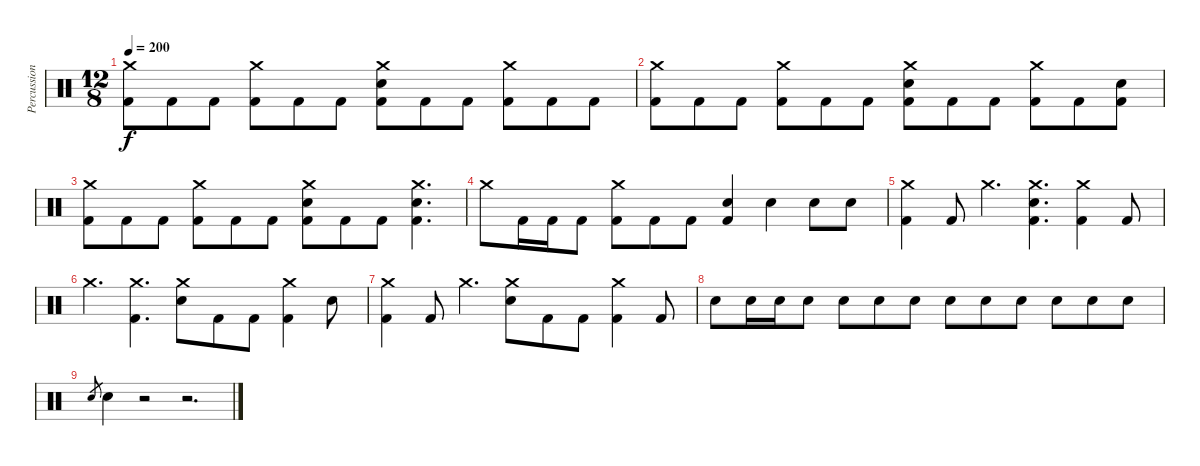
\track ("Percussion" "Percussion") {instrument percussion}
\staff {score}
\articulation defaults
\ts (12 8)
\tempo 200
\clef neutral
\ks c
("Crash medium (hit)" "Kick (hit) 2").8{dy f} "Kick (hit) 2".8 "Kick (hit) 2".8 ("Crash medium (hit)" "Kick (hit) 2").8 "Kick (hit) 2".8 "Kick (hit) 2".8 ("Crash medium (hit)" "Electric Snare (hit)" "Kick (hit) 2").8 "Kick (hit) 2".8 "Kick (hit) 2".8 ("Crash medium (hit)" "Kick (hit) 2").8 "Kick (hit) 2".8 "Kick (hit) 2".8 |
("Crash medium (hit)" "Kick (hit) 2").8 "Kick (hit) 2".8 "Kick (hit) 2".8 ("Crash medium (hit)" "Kick (hit) 2").8 "Kick (hit) 2".8 "Kick (hit) 2".8 ("Crash medium (hit)" "Electric Snare (hit)" "Kick (hit) 2").8 "Kick (hit) 2".8 "Kick (hit) 2".8 ("Crash medium (hit)" "Kick (hit) 2").8 "Kick (hit) 2".8 ("Electric Snare (hit)" "Kick (hit) 2").8 |
("Crash medium (hit)" "Kick (hit) 2").8 "Kick (hit) 2".8 "Kick (hit) 2".8 ("Crash medium (hit)" "Kick (hit) 2").8 "Kick (hit) 2".8 "Kick (hit) 2".8 ("Crash medium (hit)" "Electric Snare (hit)" "Kick (hit) 2").8 "Kick (hit) 2".8 "Kick (hit) 2".8 ("Crash medium (hit)" "Electric Snare (hit)" "Kick (hit) 2").4{d} |
"Crash medium (hit)".8 "Kick (hit) 2".16 "Kick (hit) 2".16 "Kick (hit) 2".8 ("Crash medium (hit)" "Kick (hit) 2").8 "Kick (hit) 2".8 "Kick (hit) 2".8 ("Electric Snare (hit)" "Kick (hit) 2").4 "Electric Snare (hit)".4 "Electric Snare (hit)".8 "Electric Snare (hit)".8 |
("Crash medium (hit)" "Kick (hit) 2").4 "Kick (hit) 2".8 "Crash medium (hit)".4{d} ("Crash medium (hit)" "Electric Snare (hit)" "Kick (hit) 2").4{d} ("Crash medium (hit)" "Kick (hit) 2").4 "Kick (hit) 2".8 |
"Crash medium (hit)".4{d} ("Crash medium (hit)" "Kick (hit) 2").4{d} ("Crash medium (hit)" "Electric Snare (hit)").8 "Kick (hit) 2".8 "Kick (hit) 2".8 ("Crash medium (hit)" "Kick (hit) 2").4 "Electric Snare (hit)".8 |
("Crash medium (hit)" "Kick (hit) 2").4 "Kick (hit) 2".8 "Crash medium (hit)".4{d} ("Crash medium (hit)" "Electric Snare (hit)").8 "Kick (hit) 2".8 "Kick (hit) 2".8 ("Crash medium (hit)" "Kick (hit) 2").4 "Kick (hit) 2".8 |
"Electric Snare (hit)".8 "Electric Snare (hit)".16 "Electric Snare (hit)".16 "Electric Snare (hit)".8 "Electric Snare (hit)".8 "Electric Snare (hit)".8 "Electric Snare (hit)".8 "Electric Snare (hit)".8 "Electric Snare (hit)".8 "Electric Snare (hit)".8 "Electric Snare (hit)".8 "Electric Snare (hit)".8 "Electric Snare (hit)".8 |
"Electric Snare (hit)".8{gr} "Electric Snare (hit)".4 r.2 r.2{d}
